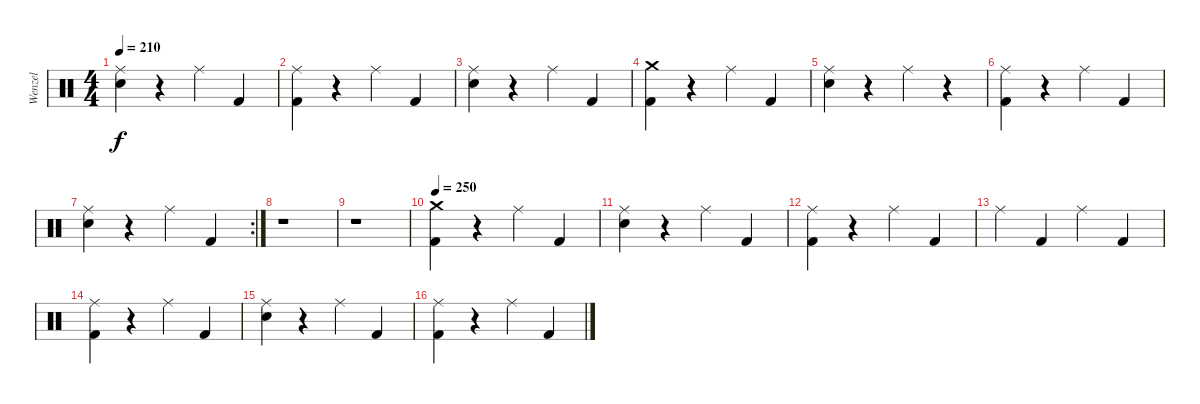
\track ("Wenzel" "Wenzel") {instrument percussion}
\staff {score}
\articulation defaults
\ts (4 4)
\tempo 210
\clef neutral
\ks c
("Ride (middle)" "Snare (hit) 2").4{dy f} r.4 "Ride (middle)".4 "Kick (hit) 2".4 |
("Ride (middle)" "Kick (hit) 2").4 r.4 "Ride (middle)".4 "Kick (hit) 2".4 |
("Ride (middle)" "Snare (hit) 2").4 r.4 "Ride (middle)".4 "Kick (hit) 2".4 |
("Crash medium (hit)" "Kick (hit) 2").4 r.4 "Ride (middle)".4 "Kick (hit) 2".4 |
("Ride (middle)" "Snare (hit) 2").4 r.4 "Ride (middle)".4 r.4 |
("Ride (middle)" "Kick (hit) 2").4 r.4 "Ride (middle)".4 "Kick (hit) 2".4 |
\rc 2
("Ride (middle)" "Snare (hit) 2").4 r.4 "Ride (middle)".4 "Kick (hit) 2".4 |
r.1 |
r.1 |
\tempo 250
("Crash medium (hit)" "Kick (hit) 2").4 r.4 "Ride (middle)".4 "Kick (hit) 2".4 |
("Ride (middle)" "Snare (hit) 2").4 r.4 "Ride (middle)".4 "Kick (hit) 2".4 |
("Ride (middle)" "Kick (hit) 2").4 r.4 "Ride (middle)".4 "Kick (hit) 2".4 |
"Ride (middle)".4 "Kick (hit) 2".4 "Ride (middle)".4 "Kick (hit) 2".4 |
("Ride (middle)" "Kick (hit) 2").4 r.4 "Ride (middle)".4 "Kick (hit) 2".4 |
("Ride (middle)" "Snare (hit) 2").4 r.4 "Ride (middle)".4 "Kick (hit) 2".4 |
("Ride (middle)" "Kick (hit) 2").4 r.4 "Ride (middle)".4 "Kick (hit) 2".4
